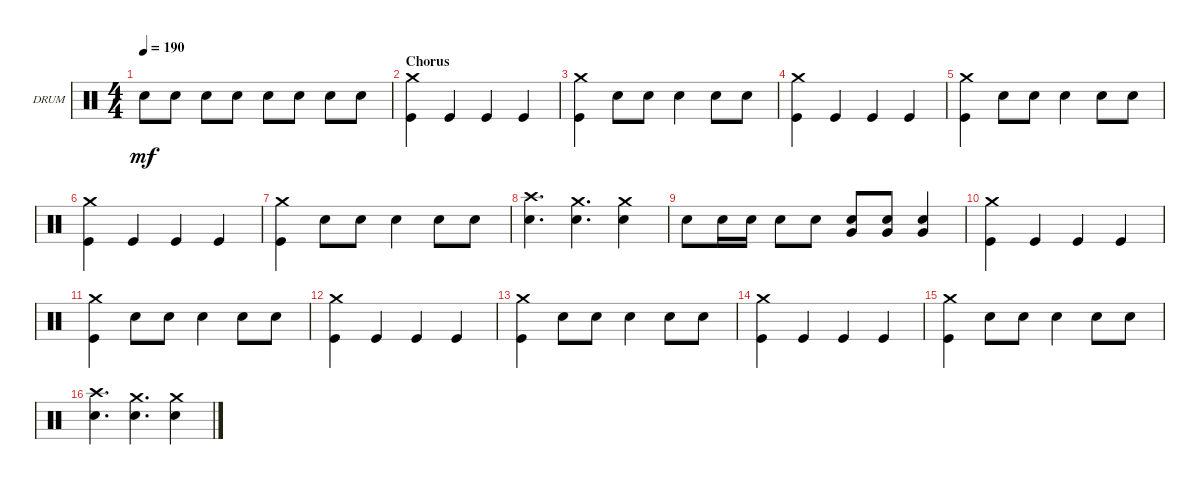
\defaultSystemsLayout 4
\bracketExtendMode groupsimilarinstruments
\firstSystemTrackNameOrientation horizontal
\otherSystemsTrackNameOrientation horizontal
\track ("Drums" "DRUM") {instrument percussion}
\staff {score}
\articulation defaults
\ts (4 4)
\tempo 190
\clef neutral
\ks c "Snare (hit) 2".8{dy mf} "Snare (hit) 2".8 "Snare (hit) 2".8 "Snare (hit) 2".8 "Snare (hit) 2".8 "Snare (hit) 2".8 "Snare (hit) 2".8 "Snare (hit) 2".8
|
\section ("" "Chorus")
("Kick (hit)" "Crash medium (hit)").4 "Kick (hit)".4 "Kick (hit)".4 "Kick (hit)".4 |
("Crash medium (hit)" "Kick (hit)").4 "Snare (hit) 2".8 "Snare (hit) 2".8 "Snare (hit) 2".4 "Snare (hit) 2".8 "Snare (hit) 2".8 |
("Kick (hit)" "Crash medium (hit)").4 "Kick (hit)".4 "Kick (hit)".4 "Kick (hit)".4 |
("Crash medium (hit)" "Kick (hit)").4 "Snare (hit) 2".8 "Snare (hit) 2".8 "Snare (hit) 2".4 "Snare (hit) 2".8 "Snare (hit) 2".8 |
("Kick (hit)" "Crash medium (hit)").4 "Kick (hit)".4 "Kick (hit)".4 "Kick (hit)".4 |
("Crash medium (hit)" "Kick (hit)").4 "Snare (hit) 2".8 "Snare (hit) 2".8 "Snare (hit) 2".4 "Snare (hit) 2".8 "Snare (hit) 2".8 |
("Crash high (hit)" "Snare (hit) 2").4{d} ("Snare (hit) 2" "Crash medium (hit)").4{d} ("Crash medium (hit)" "Snare (hit) 2").4 |
"Snare (hit) 2".8 "Snare (hit) 2".16 "Snare (hit) 2".16 "Snare (hit) 2".8 "Snare (hit) 2".8 ("Snare (hit) 2" "Very Low Tom (hit)").8 ("Snare (hit) 2" "Very Low Tom (hit)").8 ("Snare (hit) 2" "Very Low Tom (hit)").4 |
("Kick (hit)" "Crash medium (hit)").4 "Kick (hit)".4 "Kick (hit)".4 "Kick (hit)".4 |
("Crash medium (hit)" "Kick (hit)").4 "Snare (hit) 2".8 "Snare (hit) 2".8 "Snare (hit) 2".4 "Snare (hit) 2".8 "Snare (hit) 2".8 |
("Kick (hit)" "Crash medium (hit)").4 "Kick (hit)".4 "Kick (hit)".4 "Kick (hit)".4 |
("Crash medium (hit)" "Kick (hit)").4 "Snare (hit) 2".8 "Snare (hit) 2".8 "Snare (hit) 2".4 "Snare (hit) 2".8 "Snare (hit) 2".8 |
("Kick (hit)" "Crash medium (hit)").4 "Kick (hit)".4 "Kick (hit)".4 "Kick (hit)".4 |
("Crash medium (hit)" "Kick (hit)").4 "Snare (hit) 2".8 "Snare (hit) 2".8 "Snare (hit) 2".4 "Snare (hit) 2".8 "Snare (hit) 2".8 |
("Crash high (hit)" "Snare (hit) 2").4{d} ("Snare (hit) 2" "Crash medium (hit)").4{d} ("Crash medium (hit)" "Snare (hit) 2").4
